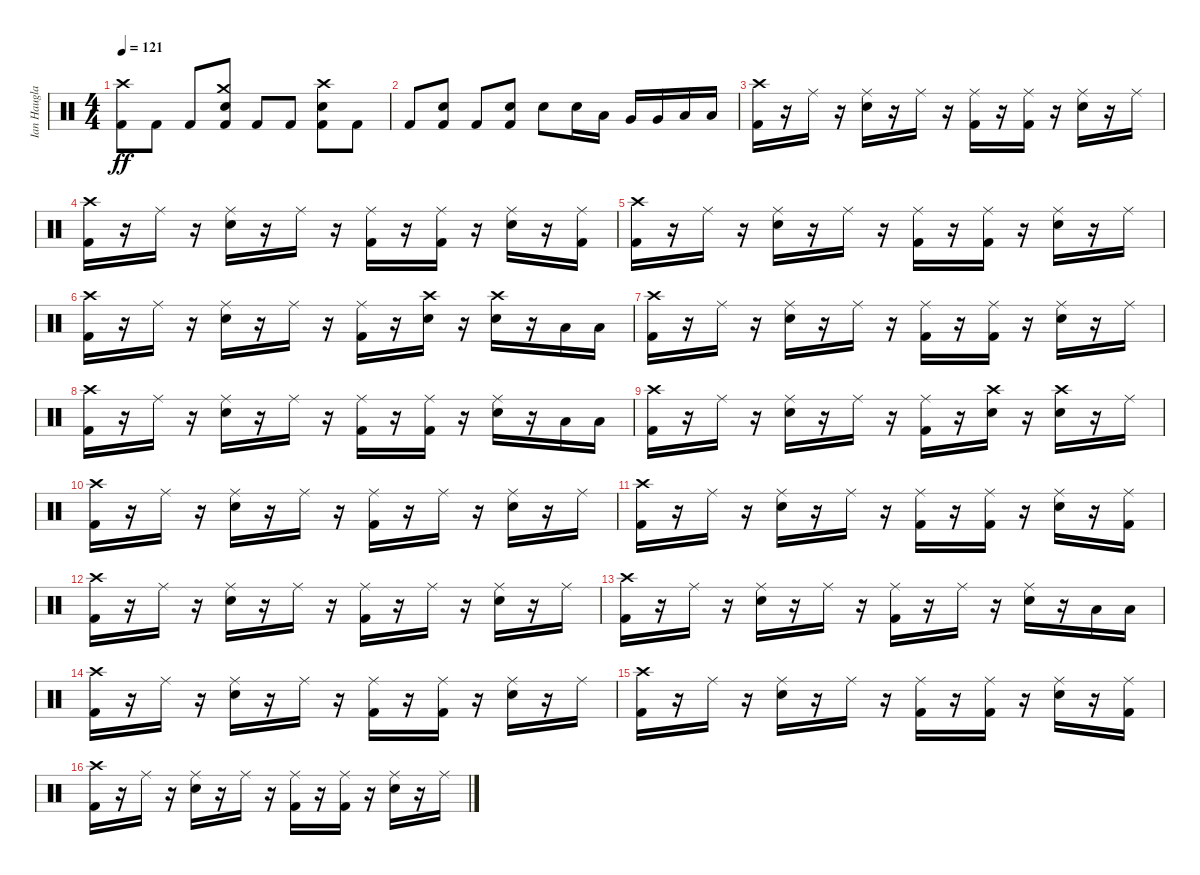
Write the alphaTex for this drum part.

\track ("Ian Haugland" "Ian Haugla") {instrument percussion}
\staff {score}
\articulation defaults
\ts (4 4)
\tempo 121
\clef neutral
\ks c
("Crash high (hit)" "Kick (hit) 2").8{dy ff} "Kick (hit) 2".8 "Kick (hit) 2".8 ("Crash medium (hit)" "Electric Snare (hit)" "Kick (hit) 2").8 "Kick (hit) 2".8 "Kick (hit) 2".8 ("Crash high (hit)" "Electric Snare (hit)" "Kick (hit) 2").8 "Kick (hit) 2".8 |
"Kick (hit) 2".8 ("Electric Snare (hit)" "Kick (hit) 2").8 "Kick (hit) 2".8 ("Electric Snare (hit)" "Kick (hit) 2").8 "Electric Snare (hit)".8 "Electric Snare (hit)".16 "Low Tom (hit)".16 "Very Low Tom (hit)".16 "Very Low Tom (hit)".16 "Low Floor Tom (hit)".16 "Low Floor Tom (hit)".16 |
("Crash high (hit)" "Kick (hit) 2").16 r.16 "Ride (middle)".16 r.16 ("Ride (middle)" "Electric Snare (hit)").16 r.16 "Ride (middle)".16 r.16 ("Ride (middle)" "Kick (hit) 2").16 r.16 ("Ride (middle)" "Kick (hit) 2").16 r.16 ("Ride (middle)" "Electric Snare (hit)").16 r.16 "Ride (middle)".16 |
("Crash high (hit)" "Kick (hit) 2").16 r.16 "Ride (middle)".16 r.16 ("Ride (middle)" "Electric Snare (hit)").16 r.16 "Ride (middle)".16 r.16 ("Ride (middle)" "Kick (hit) 2").16 r.16 ("Ride (middle)" "Kick (hit) 2").16 r.16 ("Ride (middle)" "Electric Snare (hit)").16 r.16 ("Ride (middle)" "Kick (hit) 2").16 |
("Crash high (hit)" "Kick (hit) 2").16 r.16 "Ride (middle)".16 r.16 ("Ride (middle)" "Electric Snare (hit)").16 r.16 "Ride (middle)".16 r.16 ("Ride (middle)" "Kick (hit) 2").16 r.16 ("Ride (middle)" "Kick (hit) 2").16 r.16 ("Ride (middle)" "Electric Snare (hit)").16 r.16 "Ride (middle)".16 |
("Crash high (hit)" "Kick (hit) 2").16 r.16 "Ride (middle)".16 r.16 ("Ride (middle)" "Electric Snare (hit)").16 r.16 "Ride (middle)".16 r.16 ("Ride (middle)" "Kick (hit) 2").16 r.16 ("Crash high (hit)" "Electric Snare (hit)").16 r.16 ("Crash high (hit)" "Electric Snare (hit)").16 r.16 "Low Floor Tom (hit)".16 "Low Floor Tom (hit)".16 |
("Crash high (hit)" "Kick (hit) 2").16 r.16 "Ride (middle)".16 r.16 ("Ride (middle)" "Electric Snare (hit)").16 r.16 "Ride (middle)".16 r.16 ("Ride (middle)" "Kick (hit) 2").16 r.16 ("Ride (middle)" "Kick (hit) 2").16 r.16 ("Ride (middle)" "Electric Snare (hit)").16 r.16 "Ride (middle)".16 |
("Crash high (hit)" "Kick (hit) 2").16 r.16 "Ride (middle)".16 r.16 ("Ride (middle)" "Electric Snare (hit)").16 r.16 "Ride (middle)".16 r.16 ("Ride (middle)" "Kick (hit) 2").16 r.16 ("Ride (middle)" "Kick (hit) 2").16 r.16 ("Ride (middle)" "Electric Snare (hit)").16 r.16 "Low Floor Tom (hit)".16 "Low Floor Tom (hit)".16 |
("Crash high (hit)" "Kick (hit) 2").16 r.16 "Ride (middle)".16 r.16 ("Ride (middle)" "Electric Snare (hit)").16 r.16 "Ride (middle)".16 r.16 ("Ride (middle)" "Kick (hit) 2").16 r.16 ("Crash high (hit)" "Electric Snare (hit)").16 r.16 ("Crash high (hit)" "Electric Snare (hit)").16 r.16 "Ride (middle)".16 |
("Crash high (hit)" "Kick (hit) 2").16 r.16 "Ride (middle)".16 r.16 ("Ride (middle)" "Electric Snare (hit)").16 r.16 "Ride (middle)".16 r.16 ("Ride (middle)" "Kick (hit) 2").16 r.16 "Ride (middle)".16 r.16 ("Ride (middle)" "Electric Snare (hit)").16 r.16 "Ride (middle)".16 |
("Crash high (hit)" "Kick (hit) 2").16 r.16 "Ride (middle)".16 r.16 ("Ride (middle)" "Electric Snare (hit)").16 r.16 "Ride (middle)".16 r.16 ("Ride (middle)" "Kick (hit) 2").16 r.16 ("Ride (middle)" "Kick (hit) 2").16 r.16 ("Ride (middle)" "Electric Snare (hit)").16 r.16 ("Ride (middle)" "Kick (hit) 2").16 |
("Crash high (hit)" "Kick (hit) 2").16 r.16 "Ride (middle)".16 r.16 ("Ride (middle)" "Electric Snare (hit)").16 r.16 "Ride (middle)".16 r.16 ("Ride (middle)" "Kick (hit) 2").16 r.16 "Ride (middle)".16 r.16 ("Ride (middle)" "Electric Snare (hit)").16 r.16 "Ride (middle)".16 |
("Crash high (hit)" "Kick (hit) 2").16 r.16 "Ride (middle)".16 r.16 ("Ride (middle)" "Electric Snare (hit)").16 r.16 "Ride (middle)".16 r.16 ("Ride (middle)" "Kick (hit) 2").16 r.16 "Ride (middle)".16 r.16 ("Ride (middle)" "Electric Snare (hit)").16 r.16 "Low Floor Tom (hit)".16 "Low Floor Tom (hit)".16 |
("Crash high (hit)" "Kick (hit) 2").16 r.16 "Ride (middle)".16 r.16 ("Ride (middle)" "Electric Snare (hit)").16 r.16 "Ride (middle)".16 r.16 ("Ride (middle)" "Kick (hit) 2").16 r.16 ("Ride (middle)" "Kick (hit) 2").16 r.16 ("Ride (middle)" "Electric Snare (hit)").16 r.16 "Ride (middle)".16 |
("Crash high (hit)" "Kick (hit) 2").16 r.16 "Ride (middle)".16 r.16 ("Ride (middle)" "Electric Snare (hit)").16 r.16 "Ride (middle)".16 r.16 ("Ride (middle)" "Kick (hit) 2").16 r.16 ("Ride (middle)" "Kick (hit) 2").16 r.16 ("Ride (middle)" "Electric Snare (hit)").16 r.16 ("Ride (middle)" "Kick (hit) 2").16 |
("Crash high (hit)" "Kick (hit) 2").16 r.16 "Ride (middle)".16 r.16 ("Ride (middle)" "Electric Snare (hit)").16 r.16 "Ride (middle)".16 r.16 ("Ride (middle)" "Kick (hit) 2").16 r.16 ("Ride (middle)" "Kick (hit) 2").16 r.16 ("Ride (middle)" "Electric Snare (hit)").16 r.16 "Ride (middle)".16
